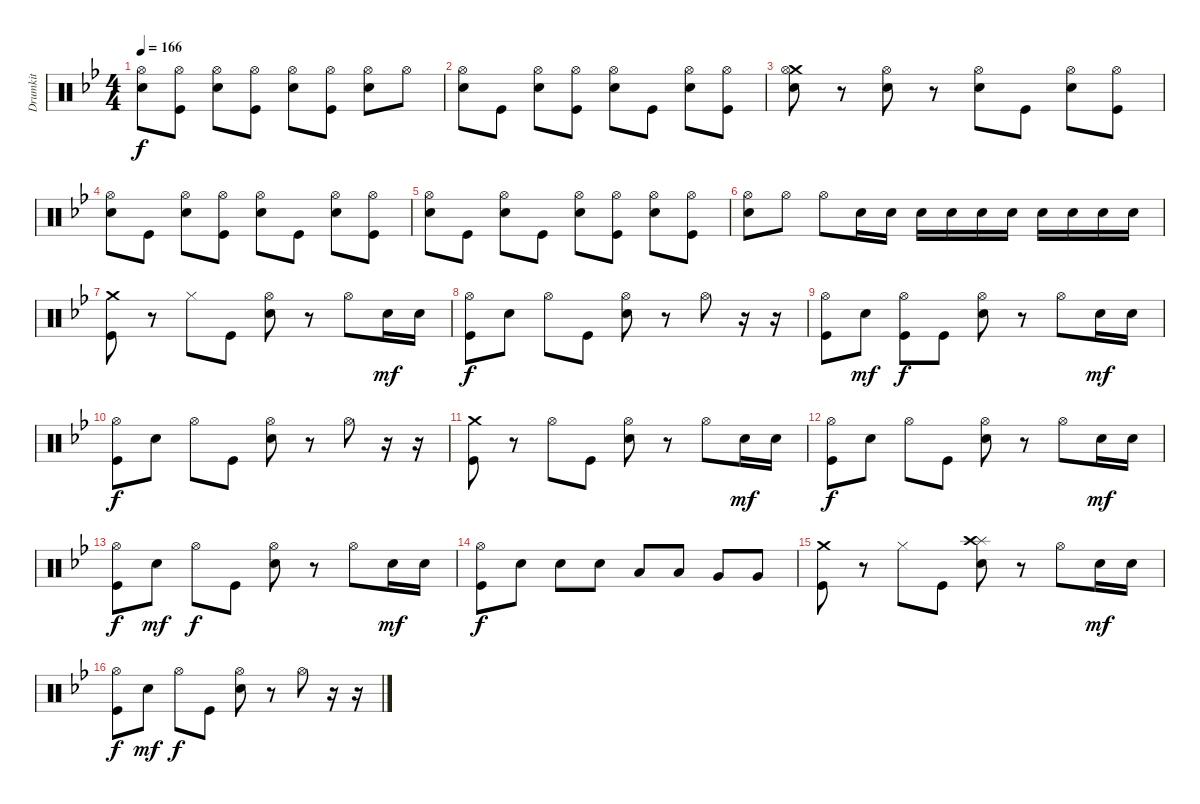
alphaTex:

\track ("Drumkit" "Drumkit") {instrument percussion}
\staff {score}
\articulation defaults
\ts (4 4)
\tempo 166
\clef neutral
\ks gminor
("Snare (hit) 2" "Hi-Hat (open)").8{dy f} ("Kick (hit)" "Hi-Hat (open)").8 ("Snare (hit) 2" "Hi-Hat (open)").8 ("Kick (hit)" "Hi-Hat (open)").8 ("Snare (hit) 2" "Hi-Hat (open)").8 ("Kick (hit)" "Hi-Hat (open)").8 ("Snare (hit) 2" "Hi-Hat (open)").8 "Hi-Hat (open)".8 |
("Snare (hit) 2" "Hi-Hat (open)").8 "Kick (hit)".8 ("Snare (hit) 2" "Hi-Hat (open)").8 ("Kick (hit)" "Hi-Hat (open)").8 ("Snare (hit) 2" "Hi-Hat (open)").8 "Kick (hit)".8 ("Snare (hit) 2" "Hi-Hat (open)").8 ("Kick (hit)" "Hi-Hat (open)").8 |
("Snare (hit) 2" "Crash medium (hit)" "Hi-Hat (open)").8 r.8 ("Snare (hit) 2" "Hi-Hat (open)").8 r.8 ("Snare (hit) 2" "Hi-Hat (open)").8 "Kick (hit)".8 ("Snare (hit) 2" "Hi-Hat (open)").8 ("Kick (hit)" "Hi-Hat (open)").8 |
("Snare (hit) 2" "Hi-Hat (open)").8 "Kick (hit)".8 ("Snare (hit) 2" "Hi-Hat (open)").8 ("Kick (hit)" "Hi-Hat (open)").8 ("Snare (hit) 2" "Hi-Hat (open)").8 "Kick (hit)".8 ("Snare (hit) 2" "Hi-Hat (open)").8 ("Kick (hit)" "Hi-Hat (open)").8 |
("Snare (hit) 2" "Hi-Hat (open)").8 "Kick (hit)".8 ("Snare (hit) 2" "Hi-Hat (open)").8 "Kick (hit)".8 ("Snare (hit) 2" "Hi-Hat (open)").8 ("Kick (hit)" "Hi-Hat (open)").8 ("Snare (hit) 2" "Hi-Hat (open)").8 ("Kick (hit)" "Hi-Hat (open)").8 |
("Hi-Hat (open)" "Snare (hit) 2").8 "Hi-Hat (open)".8 "Hi-Hat (open)".8 "Snare (hit) 2".16 "Snare (hit) 2".16 "Snare (hit) 2".16 "Snare (hit) 2".16 "Snare (hit) 2".16 "Snare (hit) 2".16 "Snare (hit) 2".16 "Snare (hit) 2".16 "Snare (hit) 2".16 "Snare (hit) 2".16 |
("Crash medium (hit)" "Kick (hit)").8 r.8 "Hi-Hat (closed)".8 "Kick (hit)".8 ("Snare (hit) 2" "Hi-Hat (open)").8 r.8 "Hi-Hat (open)".8 "Snare (hit) 2".16{dy mf} "Snare (hit) 2".16 |
("Kick (hit)" "Hi-Hat (open)").8{dy f} "Snare (hit) 2".8 "Hi-Hat (open)".8 "Kick (hit)".8 ("Snare (hit) 2" "Hi-Hat (open)").8 r.8 "Hi-Hat (open)".8 r.16 r.16 |
("Kick (hit)" "Hi-Hat (open)").8 "Snare (hit) 2".8{dy mf} ("Hi-Hat (open)" "Kick (hit)").8{dy f} "Kick (hit)".8 ("Snare (hit) 2" "Hi-Hat (open)").8 r.8 "Hi-Hat (open)".8 "Snare (hit) 2".16{dy mf} "Snare (hit) 2".16 |
("Kick (hit)" "Hi-Hat (open)").8{dy f} "Snare (hit) 2".8 "Hi-Hat (open)".8 "Kick (hit)".8 ("Snare (hit) 2" "Hi-Hat (open)").8 r.8 "Hi-Hat (open)".8 r.16 r.16 |
("Crash medium (hit)" "Kick (hit)").8 r.8 "Hi-Hat (open)".8 "Kick (hit)".8 ("Snare (hit) 2" "Hi-Hat (open)").8 r.8 "Hi-Hat (open)".8 "Snare (hit) 2".16{dy mf} "Snare (hit) 2".16 |
("Kick (hit)" "Hi-Hat (open)").8{dy f} "Snare (hit) 2".8 "Hi-Hat (open)".8 "Kick (hit)".8 ("Snare (hit) 2" "Hi-Hat (open)").8 r.8 "Hi-Hat (open)".8 "Snare (hit) 2".16{dy mf} "Snare (hit) 2".16 |
("Kick (hit)" "Hi-Hat (open)").8{dy f} "Snare (hit) 2".8{dy mf} "Hi-Hat (open)".8{dy f} "Kick (hit)".8 ("Snare (hit) 2" "Hi-Hat (open)").8 r.8 "Hi-Hat (open)".8 "Snare (hit) 2".16{dy mf} "Snare (hit) 2".16 |
("Kick (hit)" "Hi-Hat (open)").8{dy f} "Snare (hit) 2".8 "Snare (hit) 2".8 "Snare (hit) 2".8 "Low Tom (hit)".8 "Low Tom (hit)".8 "Very Low Tom (hit)".8 "Very Low Tom (hit)".8 |
("Crash medium (hit)" "Kick (hit)").8 r.8 "Hi-Hat (closed)".8 "Kick (hit)".8 ("Snare (hit) 2" "Splash (hit)" "Crash high (hit)").8 r.8 "Hi-Hat (open)".8 "Snare (hit) 2".16{dy mf} "Snare (hit) 2".16 |
("Kick (hit)" "Hi-Hat (open)").8{dy f} "Snare (hit) 2".8{dy mf} "Hi-Hat (open)".8{dy f} "Kick (hit)".8 ("Snare (hit) 2" "Hi-Hat (open)").8 r.8 "Hi-Hat (open)".8 r.16 r.16
